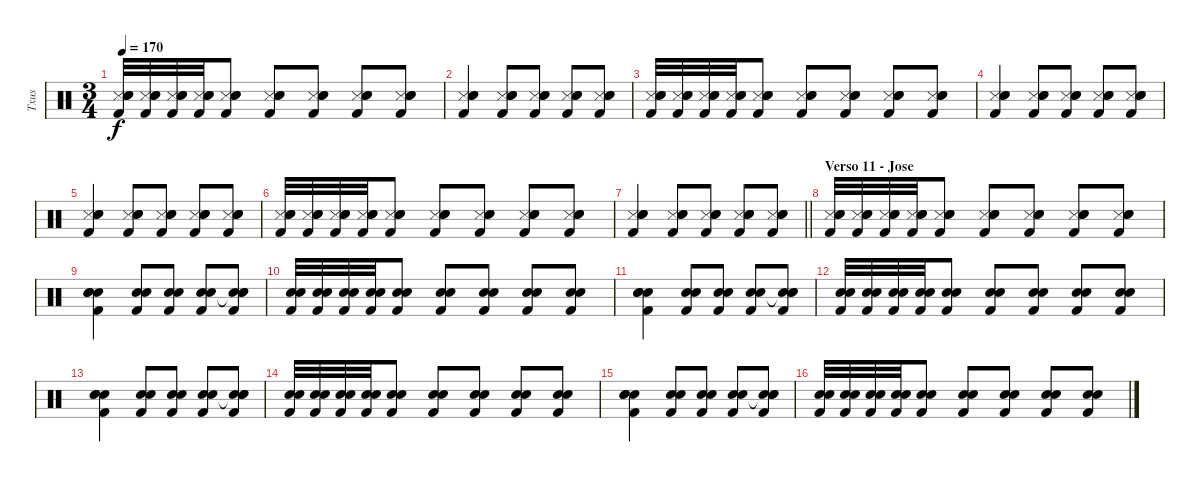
\track ("Txus" "Txus") {instrument percussion}
\staff {score}
\articulation defaults
\ts (3 4)
\tempo 170
\clef neutral
\ks c
("Metronome (hit)" "Snare (hit) 2" "Hand Clap (hit)" "Kick (hit) 2").32{dy f} ("Metronome (hit)" "Snare (hit) 2" "Hand Clap (hit)" "Kick (hit) 2").32 ("Metronome (hit)" "Snare (hit) 2" "Hand Clap (hit)" "Kick (hit) 2").32 ("Metronome (hit)" "Snare (hit) 2" "Hand Clap (hit)" "Kick (hit) 2").32 ("Metronome (hit)" "Snare (hit) 2" "Hand Clap (hit)" "Kick (hit) 2").8 ("Metronome (hit)" "Snare (hit) 2" "Hand Clap (hit)" "Kick (hit) 2").8 ("Metronome (hit)" "Snare (hit) 2" "Hand Clap (hit)" "Kick (hit) 2").8 ("Metronome (hit)" "Snare (hit) 2" "Hand Clap (hit)" "Kick (hit) 2").8 ("Metronome (hit)" "Snare (hit) 2" "Hand Clap (hit)" "Kick (hit) 2").8 |
("Metronome (hit)" "Snare (hit) 2" "Hand Clap (hit)" "Kick (hit) 2").4 ("Metronome (hit)" "Snare (hit) 2" "Hand Clap (hit)" "Kick (hit) 2").8 ("Metronome (hit)" "Snare (hit) 2" "Hand Clap (hit)" "Kick (hit) 2").8 ("Metronome (hit)" "Snare (hit) 2" "Hand Clap (hit)" "Kick (hit) 2").8 ("Metronome (hit)" "Snare (hit) 2" "Hand Clap (hit)" "Kick (hit) 2").8 |
("Metronome (hit)" "Snare (hit) 2" "Hand Clap (hit)" "Kick (hit) 2").32 ("Metronome (hit)" "Snare (hit) 2" "Hand Clap (hit)" "Kick (hit) 2").32 ("Metronome (hit)" "Snare (hit) 2" "Hand Clap (hit)" "Kick (hit) 2").32 ("Metronome (hit)" "Snare (hit) 2" "Hand Clap (hit)" "Kick (hit) 2").32 ("Metronome (hit)" "Snare (hit) 2" "Hand Clap (hit)" "Kick (hit) 2").8 ("Metronome (hit)" "Snare (hit) 2" "Hand Clap (hit)" "Kick (hit) 2").8 ("Metronome (hit)" "Snare (hit) 2" "Hand Clap (hit)" "Kick (hit) 2").8 ("Metronome (hit)" "Snare (hit) 2" "Hand Clap (hit)" "Kick (hit) 2").8 ("Metronome (hit)" "Snare (hit) 2" "Hand Clap (hit)" "Kick (hit) 2").8 |
("Metronome (hit)" "Snare (hit) 2" "Hand Clap (hit)" "Kick (hit) 2").4 ("Metronome (hit)" "Snare (hit) 2" "Hand Clap (hit)" "Kick (hit) 2").8 ("Metronome (hit)" "Snare (hit) 2" "Hand Clap (hit)" "Kick (hit) 2").8 ("Metronome (hit)" "Snare (hit) 2" "Hand Clap (hit)" "Kick (hit) 2").8 ("Metronome (hit)" "Snare (hit) 2" "Hand Clap (hit)" "Kick (hit) 2").8 |
("Metronome (hit)" "Snare (hit) 2" "Hand Clap (hit)" "Kick (hit) 2").4 ("Metronome (hit)" "Snare (hit) 2" "Hand Clap (hit)" "Kick (hit) 2").8 ("Metronome (hit)" "Snare (hit) 2" "Hand Clap (hit)" "Kick (hit) 2").8 ("Metronome (hit)" "Snare (hit) 2" "Hand Clap (hit)" "Kick (hit) 2").8 ("Metronome (hit)" "Snare (hit) 2" "Hand Clap (hit)" "Kick (hit) 2").8 |
("Metronome (hit)" "Snare (hit) 2" "Hand Clap (hit)" "Kick (hit) 2").32 ("Metronome (hit)" "Snare (hit) 2" "Hand Clap (hit)" "Kick (hit) 2").32 ("Metronome (hit)" "Snare (hit) 2" "Hand Clap (hit)" "Kick (hit) 2").32 ("Metronome (hit)" "Snare (hit) 2" "Hand Clap (hit)" "Kick (hit) 2").32 ("Metronome (hit)" "Snare (hit) 2" "Hand Clap (hit)" "Kick (hit) 2").8 ("Metronome (hit)" "Snare (hit) 2" "Hand Clap (hit)" "Kick (hit) 2").8 ("Metronome (hit)" "Snare (hit) 2" "Hand Clap (hit)" "Kick (hit) 2").8 ("Metronome (hit)" "Snare (hit) 2" "Hand Clap (hit)" "Kick (hit) 2").8 ("Metronome (hit)" "Snare (hit) 2" "Hand Clap (hit)" "Kick (hit) 2").8 |
\barLineRight lightlight
("Metronome (hit)" "Snare (hit) 2" "Hand Clap (hit)" "Kick (hit) 2").4 ("Metronome (hit)" "Snare (hit) 2" "Hand Clap (hit)" "Kick (hit) 2").8 ("Metronome (hit)" "Snare (hit) 2" "Hand Clap (hit)" "Kick (hit) 2").8 ("Metronome (hit)" "Snare (hit) 2" "Hand Clap (hit)" "Kick (hit) 2").8 ("Metronome (hit)" "Snare (hit) 2" "Hand Clap (hit)" "Kick (hit) 2").8 |
\section ("" "Verso 11 - Jose")
("Metronome (hit)" "Snare (hit) 2" "Hand Clap (hit)" "Kick (hit) 2").32 ("Metronome (hit)" "Snare (hit) 2" "Hand Clap (hit)" "Kick (hit) 2").32 ("Metronome (hit)" "Snare (hit) 2" "Hand Clap (hit)" "Kick (hit) 2").32 ("Metronome (hit)" "Snare (hit) 2" "Hand Clap (hit)" "Kick (hit) 2").32 ("Metronome (hit)" "Snare (hit) 2" "Hand Clap (hit)" "Kick (hit) 2").8 ("Metronome (hit)" "Snare (hit) 2" "Hand Clap (hit)" "Kick (hit) 2").8 ("Metronome (hit)" "Snare (hit) 2" "Hand Clap (hit)" "Kick (hit) 2").8 ("Metronome (hit)" "Snare (hit) 2" "Hand Clap (hit)" "Kick (hit) 2").8 ("Metronome (hit)" "Snare (hit) 2" "Hand Clap (hit)" "Kick (hit) 2").8 |
("Electric Snare (hit)" "Snare (hit) 2" "Hand Clap (hit)" "Kick (hit) 2").4 ("Snare (hit) 2" "Hand Clap (hit)" "Kick (hit) 2").8 ("Snare (hit) 2" "Hand Clap (hit)" "Kick (hit) 2").8 ("Snare (hit) 2" "Hand Clap (hit)" "Kick (hit) 2").8 ("Snare (hit)"{t} "Snare (hit) 2" "Hand Clap (hit)" "Kick (hit) 2").8 |
("Snare (hit) 2" "Hand Clap (hit)" "Kick (hit) 2").32 ("Snare (hit) 2" "Hand Clap (hit)" "Kick (hit) 2").32 ("Snare (hit) 2" "Hand Clap (hit)" "Kick (hit) 2").32 ("Snare (hit) 2" "Hand Clap (hit)" "Kick (hit) 2").32 ("Snare (hit) 2" "Hand Clap (hit)" "Kick (hit) 2").8 ("Snare (hit) 2" "Hand Clap (hit)" "Kick (hit) 2").8 ("Snare (hit) 2" "Hand Clap (hit)" "Kick (hit) 2").8 ("Snare (hit) 2" "Hand Clap (hit)" "Kick (hit) 2").8 ("Snare (hit) 2" "Hand Clap (hit)" "Kick (hit) 2").8 |
("Electric Snare (hit)" "Snare (hit) 2" "Hand Clap (hit)" "Kick (hit) 2").4 ("Snare (hit) 2" "Hand Clap (hit)" "Kick (hit) 2").8 ("Snare (hit) 2" "Hand Clap (hit)" "Kick (hit) 2").8 ("Snare (hit) 2" "Hand Clap (hit)" "Kick (hit) 2").8 ("Snare (hit)"{t} "Snare (hit) 2" "Hand Clap (hit)" "Kick (hit) 2").8 |
("Snare (hit) 2" "Hand Clap (hit)" "Kick (hit) 2").32 ("Snare (hit) 2" "Hand Clap (hit)" "Kick (hit) 2").32 ("Snare (hit) 2" "Hand Clap (hit)" "Kick (hit) 2").32 ("Snare (hit) 2" "Hand Clap (hit)" "Kick (hit) 2").32 ("Snare (hit) 2" "Hand Clap (hit)" "Kick (hit) 2").8 ("Snare (hit) 2" "Hand Clap (hit)" "Kick (hit) 2").8 ("Snare (hit) 2" "Hand Clap (hit)" "Kick (hit) 2").8 ("Snare (hit) 2" "Hand Clap (hit)" "Kick (hit) 2").8 ("Snare (hit) 2" "Hand Clap (hit)" "Kick (hit) 2").8 |
("Electric Snare (hit)" "Snare (hit) 2" "Hand Clap (hit)" "Kick (hit) 2").4 ("Snare (hit) 2" "Hand Clap (hit)" "Kick (hit) 2").8 ("Snare (hit) 2" "Hand Clap (hit)" "Kick (hit) 2").8 ("Snare (hit) 2" "Hand Clap (hit)" "Kick (hit) 2").8 ("Snare (hit)"{t} "Snare (hit) 2" "Hand Clap (hit)" "Kick (hit) 2").8 |
("Snare (hit) 2" "Hand Clap (hit)" "Kick (hit) 2").32 ("Snare (hit) 2" "Hand Clap (hit)" "Kick (hit) 2").32 ("Snare (hit) 2" "Hand Clap (hit)" "Kick (hit) 2").32 ("Snare (hit) 2" "Hand Clap (hit)" "Kick (hit) 2").32 ("Snare (hit) 2" "Hand Clap (hit)" "Kick (hit) 2").8 ("Snare (hit) 2" "Hand Clap (hit)" "Kick (hit) 2").8 ("Snare (hit) 2" "Hand Clap (hit)" "Kick (hit) 2").8 ("Snare (hit) 2" "Hand Clap (hit)" "Kick (hit) 2").8 ("Snare (hit) 2" "Hand Clap (hit)" "Kick (hit) 2").8 |
("Electric Snare (hit)" "Snare (hit) 2" "Hand Clap (hit)" "Kick (hit) 2").4 ("Snare (hit) 2" "Hand Clap (hit)" "Kick (hit) 2").8 ("Snare (hit) 2" "Hand Clap (hit)" "Kick (hit) 2").8 ("Snare (hit) 2" "Hand Clap (hit)" "Kick (hit) 2").8 ("Snare (hit)"{t} "Snare (hit) 2" "Hand Clap (hit)" "Kick (hit) 2").8 |
("Snare (hit) 2" "Hand Clap (hit)" "Kick (hit) 2").32 ("Snare (hit) 2" "Hand Clap (hit)" "Kick (hit) 2").32 ("Snare (hit) 2" "Hand Clap (hit)" "Kick (hit) 2").32 ("Snare (hit) 2" "Hand Clap (hit)" "Kick (hit) 2").32 ("Snare (hit) 2" "Hand Clap (hit)" "Kick (hit) 2").8 ("Snare (hit) 2" "Hand Clap (hit)" "Kick (hit) 2").8 ("Snare (hit) 2" "Hand Clap (hit)" "Kick (hit) 2").8 ("Snare (hit) 2" "Hand Clap (hit)" "Kick (hit) 2").8 ("Snare (hit) 2" "Hand Clap (hit)" "Kick (hit) 2").8
